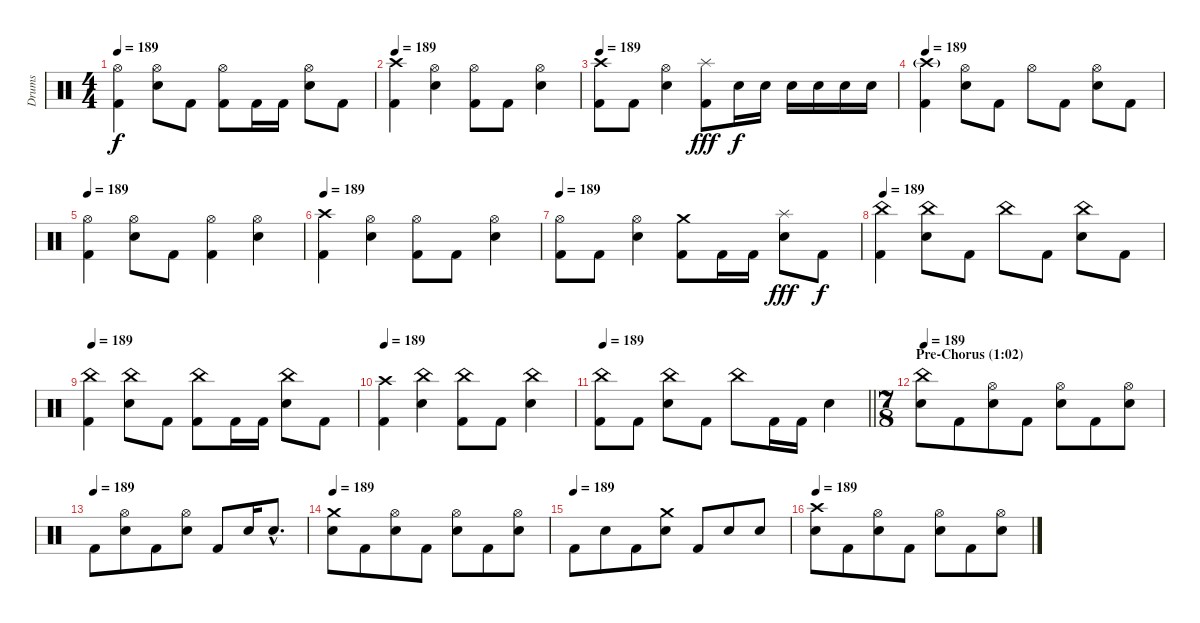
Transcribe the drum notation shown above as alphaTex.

\track ("Drums" "Drums") {instrument percussion}
\staff {score}
\articulation defaults
\ts (4 4)
\tempo 189
\clef neutral
\ks c
("Hi-Hat (open)" "Kick (hit) 2").4{dy f} ("Hi-Hat (open)" "Snare (hit) 2").8 "Kick (hit) 2".8 ("Hi-Hat (open)" "Kick (hit) 2").8 "Kick (hit) 2".16 "Kick (hit) 2".16 ("Hi-Hat (open)" "Snare (hit) 2").8 "Kick (hit) 2".8 |
\tempo 189
("Crash high (hit)" "Kick (hit) 2").4 ("Hi-Hat (open)" "Snare (hit) 2").4 ("Hi-Hat (open)" "Kick (hit) 2").8 "Kick (hit) 2".8 ("Hi-Hat (open)" "Snare (hit) 2").4 |
\tempo 189
("Crash high (hit)" "Kick (hit) 2").8 "Kick (hit) 2".8 ("Hi-Hat (open)" "Snare (hit) 2").4 ("Splash (hit)" "Kick (hit) 2").8{dy fff} "Snare (hit) 2".16{dy f} "Snare (hit) 2".16 "Snare (hit) 2".16 "Snare (hit) 2".16 "Snare (hit) 2".16 "Snare (hit) 2".16 |
\tempo 189
("Crash high (hit)"{g} "Kick (hit) 2").4 ("Hi-Hat (open)" "Snare (hit) 2").8 "Kick (hit) 2".8 "Hi-Hat (open)".8 "Kick (hit) 2".8 ("Hi-Hat (open)" "Snare (hit) 2").8 "Kick (hit) 2".8 |
\tempo 189
("Hi-Hat (open)" "Kick (hit) 2").4 ("Hi-Hat (open)" "Snare (hit) 2").8 "Kick (hit) 2".8 ("Hi-Hat (open)" "Kick (hit) 2").4 ("Hi-Hat (open)" "Snare (hit) 2").4 |
\tempo 189
("Crash high (hit)" "Kick (hit) 2").4 ("Hi-Hat (open)" "Snare (hit) 2").4 ("Hi-Hat (open)" "Kick (hit) 2").8 "Kick (hit) 2".8 ("Hi-Hat (open)" "Snare (hit) 2").4 |
\tempo 189
("Hi-Hat (open)" "Kick (hit) 2").8 "Kick (hit) 2".8 ("Hi-Hat (open)" "Snare (hit) 2").4 ("Crash medium (hit)" "Kick (hit) 2").8 "Kick (hit) 2".16 "Kick (hit) 2".16 ("Splash (hit)" "Snare (hit) 2").8{dy fff} "Kick (hit) 2".8{dy f} |
\tempo 189
("China (hit)" "Kick (hit) 2").4 ("China (hit)" "Snare (hit) 2").8 "Kick (hit) 2".8 "China (hit)".8 "Kick (hit) 2".8 ("China (hit)" "Snare (hit) 2").8 "Kick (hit) 2".8 |
\tempo 189
("China (hit)" "Kick (hit) 2").4 ("China (hit)" "Snare (hit) 2").8 "Kick (hit) 2".8 ("China (hit)" "Kick (hit) 2").8 "Kick (hit) 2".16 "Kick (hit) 2".16 ("China (hit)" "Snare (hit) 2").8 "Kick (hit) 2".8 |
\tempo 189
("Crash high (hit)" "Kick (hit) 2").4 ("China (hit)" "Snare (hit) 2").4 ("China (hit)" "Kick (hit) 2").8 "Kick (hit) 2".8 ("China (hit)" "Snare (hit) 2").4 |
\tempo 189
\barLineRight lightlight
("China (hit)" "Kick (hit) 2").8 "Kick (hit) 2".8 ("China (hit)" "Snare (hit) 2").8 "Kick (hit) 2".8 "China (hit)".8 "Kick (hit) 2".16 "Kick (hit) 2".16 "Snare (hit) 2".4 |
\ts (7 8)
\section ("" "Pre-Chorus (1:02)")
\tempo 189
("China (hit)" "Snare (hit) 2").8 "Kick (hit) 2".8 ("Hi-Hat (open)" "Snare (hit) 2").8 "Kick (hit) 2".8 ("Hi-Hat (open)" "Snare (hit) 2").8 "Kick (hit) 2".8 ("Hi-Hat (open)" "Snare (hit) 2").8 |
\tempo (189)
"Kick (hit) 2".8 ("Hi-Hat (open)" "Snare (hit) 2").8 "Kick (hit) 2".8 ("Hi-Hat (open)" "Snare (hit) 2").8 "Kick (hit) 2".8 "Snare (hit) 2".16 "Snare (hit) 2"{hac}.8{d} |
\tempo 189
("Crash medium (hit)" "Snare (hit) 2").8 "Kick (hit) 2".8 ("Hi-Hat (open)" "Snare (hit) 2").8 "Kick (hit) 2".8 ("Hi-Hat (open)" "Snare (hit) 2").8 "Kick (hit) 2".8 ("Hi-Hat (open)" "Snare (hit) 2").8 |
\tempo (189)
"Kick (hit) 2".8 "Snare (hit) 2".8 "Kick (hit) 2".8 ("Crash medium (hit)" "Snare (hit) 2").8 "Kick (hit) 2".8 "Snare (hit) 2".8 "Snare (hit) 2".8 |
\tempo 189
("Crash high (hit)" "Snare (hit) 2").8 "Kick (hit) 2".8 ("Hi-Hat (open)" "Snare (hit) 2").8 "Kick (hit) 2".8 ("Hi-Hat (open)" "Snare (hit) 2").8 "Kick (hit) 2".8 ("Hi-Hat (open)" "Snare (hit) 2").8
